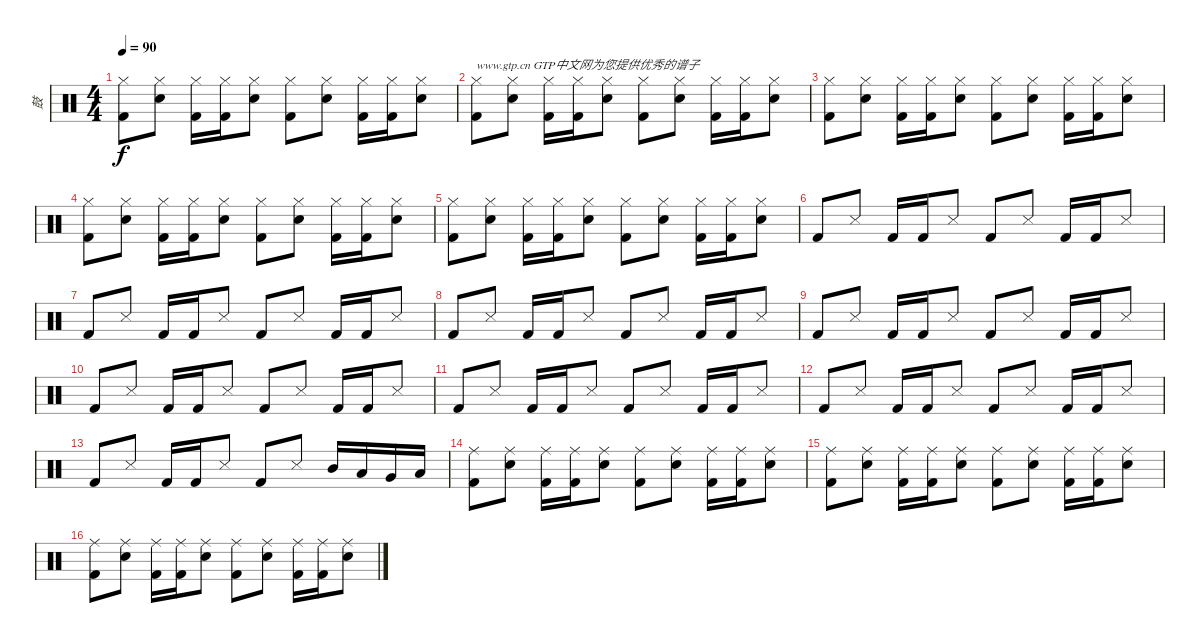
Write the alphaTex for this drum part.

\track ("鼓" "鼓") {instrument percussion}
\staff {score}
\articulation defaults
\ts (4 4)
\tempo 90
\clef neutral
\ks c
("Kick (hit) 2" "Hi-Hat (closed)").8{dy f} ("Electric Snare (hit)" "Hi-Hat (closed)").8 ("Kick (hit) 2" "Hi-Hat (closed)").16 ("Kick (hit) 2" "Hi-Hat (closed)").16 ("Electric Snare (hit)" "Hi-Hat (closed)").8 ("Kick (hit) 2" "Hi-Hat (closed)").8 ("Electric Snare (hit)" "Hi-Hat (closed)").8 ("Kick (hit) 2" "Hi-Hat (closed)").16 ("Kick (hit) 2" "Hi-Hat (closed)").16 ("Electric Snare (hit)" "Hi-Hat (closed)").8 |
("Kick (hit) 2" "Hi-Hat (closed)").8{txt "www.gtp.cn GTP中文网为您提供优秀的谱子"} ("Electric Snare (hit)" "Hi-Hat (closed)").8 ("Kick (hit) 2" "Hi-Hat (closed)").16 ("Kick (hit) 2" "Hi-Hat (closed)").16 ("Electric Snare (hit)" "Hi-Hat (closed)").8 ("Kick (hit) 2" "Hi-Hat (closed)").8 ("Electric Snare (hit)" "Hi-Hat (closed)").8 ("Kick (hit) 2" "Hi-Hat (closed)").16 ("Kick (hit) 2" "Hi-Hat (closed)").16 ("Electric Snare (hit)" "Hi-Hat (closed)").8 |
("Kick (hit) 2" "Hi-Hat (closed)").8 ("Electric Snare (hit)" "Hi-Hat (closed)").8 ("Kick (hit) 2" "Hi-Hat (closed)").16 ("Kick (hit) 2" "Hi-Hat (closed)").16 ("Electric Snare (hit)" "Hi-Hat (closed)").8 ("Kick (hit) 2" "Hi-Hat (closed)").8 ("Electric Snare (hit)" "Hi-Hat (closed)").8 ("Kick (hit) 2" "Hi-Hat (closed)").16 ("Kick (hit) 2" "Hi-Hat (closed)").16 ("Electric Snare (hit)" "Hi-Hat (closed)").8 |
("Kick (hit) 2" "Hi-Hat (closed)").8 ("Electric Snare (hit)" "Hi-Hat (closed)").8 ("Kick (hit) 2" "Hi-Hat (closed)").16 ("Kick (hit) 2" "Hi-Hat (closed)").16 ("Electric Snare (hit)" "Hi-Hat (closed)").8 ("Kick (hit) 2" "Hi-Hat (closed)").8 ("Electric Snare (hit)" "Hi-Hat (closed)").8 ("Kick (hit) 2" "Hi-Hat (closed)").16 ("Kick (hit) 2" "Hi-Hat (closed)").16 ("Electric Snare (hit)" "Hi-Hat (closed)").8 |
("Kick (hit) 2" "Hi-Hat (closed)").8 ("Electric Snare (hit)" "Hi-Hat (closed)").8 ("Kick (hit) 2" "Hi-Hat (closed)").16 ("Kick (hit) 2" "Hi-Hat (closed)").16 ("Electric Snare (hit)" "Hi-Hat (closed)").8 ("Kick (hit) 2" "Hi-Hat (closed)").8 ("Electric Snare (hit)" "Hi-Hat (closed)").8 ("Kick (hit) 2" "Hi-Hat (closed)").16 ("Kick (hit) 2" "Hi-Hat (closed)").16 ("Electric Snare (hit)" "Hi-Hat (closed)").8 |
"Kick (hit) 2".8 "Snare (side stick) 3".8 "Kick (hit) 2".16 "Kick (hit) 2".16 "Snare (side stick) 3".8 "Kick (hit) 2".8 "Snare (side stick) 3".8 "Kick (hit) 2".16 "Kick (hit) 2".16 "Snare (side stick) 3".8 |
"Kick (hit) 2".8 "Snare (side stick) 3".8 "Kick (hit) 2".16 "Kick (hit) 2".16 "Snare (side stick) 3".8 "Kick (hit) 2".8 "Snare (side stick) 3".8 "Kick (hit) 2".16 "Kick (hit) 2".16 "Snare (side stick) 3".8 |
"Kick (hit) 2".8 "Snare (side stick) 3".8 "Kick (hit) 2".16 "Kick (hit) 2".16 "Snare (side stick) 3".8 "Kick (hit) 2".8 "Snare (side stick) 3".8 "Kick (hit) 2".16 "Kick (hit) 2".16 "Snare (side stick) 3".8 |
"Kick (hit) 2".8 "Snare (side stick) 3".8 "Kick (hit) 2".16 "Kick (hit) 2".16 "Snare (side stick) 3".8 "Kick (hit) 2".8 "Snare (side stick) 3".8 "Kick (hit) 2".16 "Kick (hit) 2".16 "Snare (side stick) 3".8 |
"Kick (hit) 2".8 "Snare (side stick) 3".8 "Kick (hit) 2".16 "Kick (hit) 2".16 "Snare (side stick) 3".8 "Kick (hit) 2".8 "Snare (side stick) 3".8 "Kick (hit) 2".16 "Kick (hit) 2".16 "Snare (side stick) 3".8 |
"Kick (hit) 2".8 "Snare (side stick) 3".8 "Kick (hit) 2".16 "Kick (hit) 2".16 "Snare (side stick) 3".8 "Kick (hit) 2".8 "Snare (side stick) 3".8 "Kick (hit) 2".16 "Kick (hit) 2".16 "Snare (side stick) 3".8 |
"Kick (hit) 2".8 "Snare (side stick) 3".8 "Kick (hit) 2".16 "Kick (hit) 2".16 "Snare (side stick) 3".8 "Kick (hit) 2".8 "Snare (side stick) 3".8 "Kick (hit) 2".16 "Kick (hit) 2".16 "Snare (side stick) 3".8 |
"Kick (hit) 2".8 "Snare (side stick) 3".8 "Kick (hit) 2".16 "Kick (hit) 2".16 "Snare (side stick) 3".8 "Kick (hit) 2".8 "Snare (side stick) 3".8 "Mid Tom (hit)".16 "Low Tom (hit)".16 "Very Low Tom (hit)".16 "Low Floor Tom (hit)".16 |
("Kick (hit) 2" "Ride (middle)").8 ("Electric Snare (hit)" "Ride (middle)").8 ("Kick (hit) 2" "Ride (middle)").16 ("Kick (hit) 2" "Ride (middle)").16 ("Electric Snare (hit)" "Ride (middle)").8 ("Kick (hit) 2" "Ride (middle)").8 ("Electric Snare (hit)" "Ride (middle)").8 ("Kick (hit) 2" "Ride (middle)").16 ("Kick (hit) 2" "Ride (middle)").16 ("Electric Snare (hit)" "Ride (middle)").8 |
("Kick (hit) 2" "Ride (middle)").8 ("Electric Snare (hit)" "Ride (middle)").8 ("Kick (hit) 2" "Ride (middle)").16 ("Kick (hit) 2" "Ride (middle)").16 ("Electric Snare (hit)" "Ride (middle)").8 ("Kick (hit) 2" "Ride (middle)").8 ("Electric Snare (hit)" "Ride (middle)").8 ("Kick (hit) 2" "Ride (middle)").16 ("Kick (hit) 2" "Ride (middle)").16 ("Electric Snare (hit)" "Ride (middle)").8 |
("Kick (hit) 2" "Ride (middle)").8 ("Electric Snare (hit)" "Ride (middle)").8 ("Kick (hit) 2" "Ride (middle)").16 ("Kick (hit) 2" "Ride (middle)").16 ("Electric Snare (hit)" "Ride (middle)").8 ("Kick (hit) 2" "Ride (middle)").8 ("Electric Snare (hit)" "Ride (middle)").8 ("Kick (hit) 2" "Ride (middle)").16 ("Kick (hit) 2" "Ride (middle)").16 ("Electric Snare (hit)" "Ride (middle)").8
